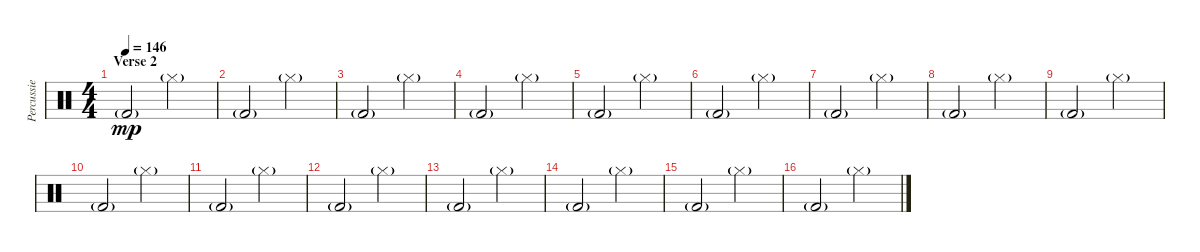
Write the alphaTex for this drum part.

\track ("Percussie" "Percussie") {instrument percussion}
\staff {score}
\articulation defaults
\ts (4 4)
\section ("" "Verse 2")
\tempo 146
\clef neutral
\ks c "Kick (hit) 2"{g}.2{dy mp} "Hi-Hat (closed)"{g}.2
|
"Kick (hit) 2"{g}.2 "Hi-Hat (closed)"{g}.2 |
"Kick (hit) 2"{g}.2 "Hi-Hat (closed)"{g}.2 |
"Kick (hit) 2"{g}.2 "Hi-Hat (closed)"{g}.2 |
"Kick (hit) 2"{g}.2 "Hi-Hat (closed)"{g}.2 |
"Kick (hit) 2"{g}.2 "Hi-Hat (closed)"{g}.2 |
"Kick (hit) 2"{g}.2 "Hi-Hat (closed)"{g}.2 |
"Kick (hit) 2"{g}.2 "Hi-Hat (closed)"{g}.2 |
"Kick (hit) 2"{g}.2 "Hi-Hat (closed)"{g}.2 |
"Kick (hit) 2"{g}.2 "Hi-Hat (closed)"{g}.2 |
"Kick (hit) 2"{g}.2 "Hi-Hat (closed)"{g}.2 |
"Kick (hit) 2"{g}.2 "Hi-Hat (closed)"{g}.2 |
"Kick (hit) 2"{g}.2 "Hi-Hat (closed)"{g}.2 |
"Kick (hit) 2"{g}.2 "Hi-Hat (closed)"{g}.2 |
"Kick (hit) 2"{g}.2 "Hi-Hat (closed)"{g}.2 |
"Kick (hit) 2"{g}.2 "Hi-Hat (closed)"{g}.2
